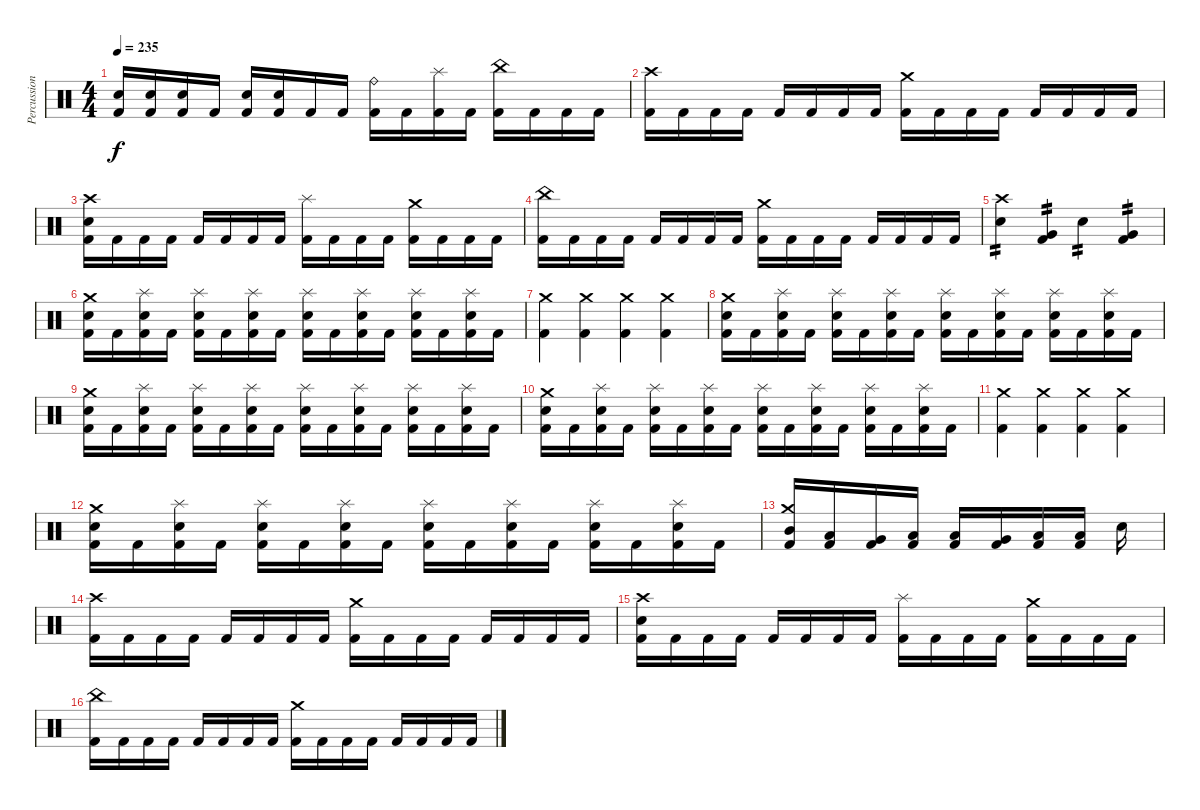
\track ("Percussion" "Percussion") {instrument percussion}
\staff {score}
\articulation defaults
\ts (4 4)
\tempo 235
\clef neutral
\ks c
("Snare (hit) 2" "Kick (hit) 2").16{dy f} ("Snare (hit) 2" "Kick (hit) 2").16 ("Snare (hit) 2" "Kick (hit) 2").16 "Kick (hit) 2".16 ("Snare (hit) 2" "Kick (hit) 2").16 ("Snare (hit) 2" "Kick (hit) 2").16 "Kick (hit) 2".16 "Kick (hit) 2".16 ("Ride (bell)" "Kick (hit) 2").16 "Kick (hit) 2".16 ("Splash (hit)" "Kick (hit) 2").16 "Kick (hit) 2".16 ("China (hit)" "Kick (hit) 2").16 "Kick (hit) 2".16 "Kick (hit) 2".16 "Kick (hit) 2".16 |
("Crash high (hit)" "Kick (hit) 2").16 "Kick (hit) 2".16 "Kick (hit) 2".16 "Kick (hit) 2".16 "Kick (hit) 2".16 "Kick (hit) 2".16 "Kick (hit) 2".16 "Kick (hit) 2".16 ("Crash medium (hit)" "Kick (hit) 2").16 "Kick (hit) 2".16 "Kick (hit) 2".16 "Kick (hit) 2".16 "Kick (hit) 2".16 "Kick (hit) 2".16 "Kick (hit) 2".16 "Kick (hit) 2".16 |
("Crash high (hit)" "Snare (hit) 2" "Kick (hit) 2").16 "Kick (hit) 2".16 "Kick (hit) 2".16 "Kick (hit) 2".16 "Kick (hit) 2".16 "Kick (hit) 2".16 "Kick (hit) 2".16 "Kick (hit) 2".16 ("Splash (hit)" "Kick (hit) 2").16 "Kick (hit) 2".16 "Kick (hit) 2".16 "Kick (hit) 2".16 ("Crash medium (hit)" "Kick (hit) 2").16 "Kick (hit) 2".16 "Kick (hit) 2".16 "Kick (hit) 2".16 |
("China (hit)" "Kick (hit) 2").16 "Kick (hit) 2".16 "Kick (hit) 2".16 "Kick (hit) 2".16 "Kick (hit) 2".16 "Kick (hit) 2".16 "Kick (hit) 2".16 "Kick (hit) 2".16 ("Crash medium (hit)" "Kick (hit) 2").16 "Kick (hit) 2".16 "Kick (hit) 2".16 "Kick (hit) 2".16 "Kick (hit) 2".16 "Kick (hit) 2".16 "Kick (hit) 2".16 "Kick (hit) 2".16 |
("Crash high (hit)" "Snare (hit) 2").4{tp 2} ("Very Low Tom (hit)" "Kick (hit) 2").4{tp 2} "Snare (hit) 2".4{tp 2} ("Very Low Tom (hit)" "Kick (hit) 2").4{tp 2} |
("Crash medium (hit)" "Snare (hit) 2" "Kick (hit) 2").16 "Kick (hit) 2".16 ("Splash (hit)" "Snare (hit) 2" "Kick (hit) 2").16 "Kick (hit) 2".16 ("Splash (hit)" "Snare (hit) 2" "Kick (hit) 2").16 "Kick (hit) 2".16 ("Splash (hit)" "Snare (hit) 2" "Kick (hit) 2").16 "Kick (hit) 2".16 ("Splash (hit)" "Snare (hit) 2" "Kick (hit) 2").16 "Kick (hit) 2".16 ("Splash (hit)" "Snare (hit) 2" "Kick (hit) 2").16 "Kick (hit) 2".16 ("Splash (hit)" "Snare (hit) 2" "Kick (hit) 2").16 "Kick (hit) 2".16 ("Splash (hit)" "Snare (hit) 2" "Kick (hit) 2").16 "Kick (hit) 2".16 |
("Crash medium (hit)" "Kick (hit) 2").4 ("Crash medium (hit)" "Kick (hit) 2").4 ("Crash medium (hit)" "Kick (hit) 2").4 ("Crash medium (hit)" "Kick (hit) 2").4 |
("Crash medium (hit)" "Snare (hit) 2" "Kick (hit) 2").16 "Kick (hit) 2".16 ("Splash (hit)" "Snare (hit) 2" "Kick (hit) 2").16 "Kick (hit) 2".16 ("Splash (hit)" "Snare (hit) 2" "Kick (hit) 2").16 "Kick (hit) 2".16 ("Splash (hit)" "Snare (hit) 2" "Kick (hit) 2").16 "Kick (hit) 2".16 ("Splash (hit)" "Snare (hit) 2" "Kick (hit) 2").16 "Kick (hit) 2".16 ("Splash (hit)" "Snare (hit) 2" "Kick (hit) 2").16 "Kick (hit) 2".16 ("Splash (hit)" "Snare (hit) 2" "Kick (hit) 2").16 "Kick (hit) 2".16 ("Splash (hit)" "Snare (hit) 2" "Kick (hit) 2").16 "Kick (hit) 2".16 |
("Crash medium (hit)" "Snare (hit) 2" "Kick (hit) 2").16 "Kick (hit) 2".16 ("Splash (hit)" "Snare (hit) 2" "Kick (hit) 2").16 "Kick (hit) 2".16 ("Splash (hit)" "Snare (hit) 2" "Kick (hit) 2").16 "Kick (hit) 2".16 ("Splash (hit)" "Snare (hit) 2" "Kick (hit) 2").16 "Kick (hit) 2".16 ("Splash (hit)" "Snare (hit) 2" "Kick (hit) 2").16 "Kick (hit) 2".16 ("Splash (hit)" "Snare (hit) 2" "Kick (hit) 2").16 "Kick (hit) 2".16 ("Splash (hit)" "Snare (hit) 2" "Kick (hit) 2").16 "Kick (hit) 2".16 ("Splash (hit)" "Snare (hit) 2" "Kick (hit) 2").16 "Kick (hit) 2".16 |
("Crash medium (hit)" "Snare (hit) 2" "Kick (hit) 2").16 "Kick (hit) 2".16 ("Splash (hit)" "Snare (hit) 2" "Kick (hit) 2").16 "Kick (hit) 2".16 ("Splash (hit)" "Snare (hit) 2" "Kick (hit) 2").16 "Kick (hit) 2".16 ("Splash (hit)" "Snare (hit) 2" "Kick (hit) 2").16 "Kick (hit) 2".16 ("Splash (hit)" "Snare (hit) 2" "Kick (hit) 2").16 "Kick (hit) 2".16 ("Splash (hit)" "Snare (hit) 2" "Kick (hit) 2").16 "Kick (hit) 2".16 ("Splash (hit)" "Snare (hit) 2" "Kick (hit) 2").16 "Kick (hit) 2".16 ("Splash (hit)" "Snare (hit) 2" "Kick (hit) 2").16 "Kick (hit) 2".16 |
("Crash medium (hit)" "Kick (hit) 2").4 ("Crash medium (hit)" "Kick (hit) 2").4 ("Crash medium (hit)" "Kick (hit) 2").4 ("Crash medium (hit)" "Kick (hit) 2").4 |
("Crash medium (hit)" "Snare (hit) 2" "Kick (hit) 2").16 "Kick (hit) 2".16 ("Splash (hit)" "Snare (hit) 2" "Kick (hit) 2").16 "Kick (hit) 2".16 ("Splash (hit)" "Snare (hit) 2" "Kick (hit) 2").16 "Kick (hit) 2".16 ("Splash (hit)" "Snare (hit) 2" "Kick (hit) 2").16 "Kick (hit) 2".16 ("Splash (hit)" "Snare (hit) 2" "Kick (hit) 2").16 "Kick (hit) 2".16 ("Splash (hit)" "Snare (hit) 2" "Kick (hit) 2").16 "Kick (hit) 2".16 ("Splash (hit)" "Snare (hit) 2" "Kick (hit) 2").16 "Kick (hit) 2".16 ("Splash (hit)" "Snare (hit) 2" "Kick (hit) 2").16 "Kick (hit) 2".16 |
("Crash medium (hit)" "Mid Tom (hit)" "Kick (hit) 2").16 ("Low Tom (hit)" "Kick (hit) 2").16 ("Very Low Tom (hit)" "Kick (hit) 2").16 ("Low Floor Tom (hit)" "Kick (hit) 2").16 ("Low Tom (hit)" "Kick (hit) 2").16 ("Very Low Tom (hit)" "Kick (hit) 2").16 ("Low Floor Tom (hit)" "Kick (hit) 2").16 ("Low Floor Tom (hit)" "Kick (hit) 2").16 "Snare (hit) 2".16 |
("Crash high (hit)" "Kick (hit) 2").16 "Kick (hit) 2".16 "Kick (hit) 2".16 "Kick (hit) 2".16 "Kick (hit) 2".16 "Kick (hit) 2".16 "Kick (hit) 2".16 "Kick (hit) 2".16 ("Crash medium (hit)" "Kick (hit) 2").16 "Kick (hit) 2".16 "Kick (hit) 2".16 "Kick (hit) 2".16 "Kick (hit) 2".16 "Kick (hit) 2".16 "Kick (hit) 2".16 "Kick (hit) 2".16 |
("Crash high (hit)" "Snare (hit) 2" "Kick (hit) 2").16 "Kick (hit) 2".16 "Kick (hit) 2".16 "Kick (hit) 2".16 "Kick (hit) 2".16 "Kick (hit) 2".16 "Kick (hit) 2".16 "Kick (hit) 2".16 ("Splash (hit)" "Kick (hit) 2").16 "Kick (hit) 2".16 "Kick (hit) 2".16 "Kick (hit) 2".16 ("Crash medium (hit)" "Kick (hit) 2").16 "Kick (hit) 2".16 "Kick (hit) 2".16 "Kick (hit) 2".16 |
("China (hit)" "Kick (hit) 2").16 "Kick (hit) 2".16 "Kick (hit) 2".16 "Kick (hit) 2".16 "Kick (hit) 2".16 "Kick (hit) 2".16 "Kick (hit) 2".16 "Kick (hit) 2".16 ("Crash medium (hit)" "Kick (hit) 2").16 "Kick (hit) 2".16 "Kick (hit) 2".16 "Kick (hit) 2".16 "Kick (hit) 2".16 "Kick (hit) 2".16 "Kick (hit) 2".16 "Kick (hit) 2".16
